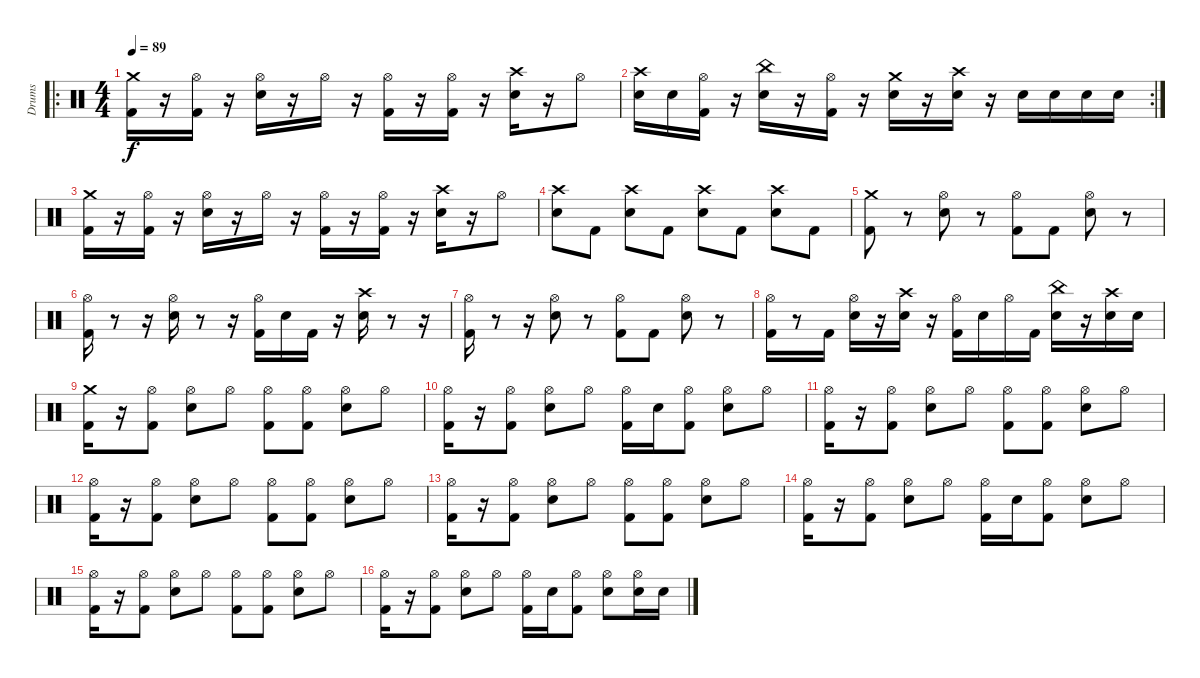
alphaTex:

\track ("Drums" "Drums") {instrument percussion}
\staff {score}
\articulation defaults
\ro
\ts (4 4)
\tempo 89
\clef neutral
\ks c
("Kick (hit) 2" "Crash medium (hit)").16{dy f} r.16 ("Hi-Hat (open)" "Kick (hit) 2").16 r.16 ("Hi-Hat (open)" "Snare (hit) 2").16 r.16 "Hi-Hat (open)".16 r.16 ("Hi-Hat (open)" "Kick (hit) 2").16 r.16 ("Hi-Hat (open)" "Kick (hit) 2").16 r.16 ("Crash high (hit)" "Snare (hit) 2").16 r.16 "Hi-Hat (open)".8 |
\rc 2
("Snare (hit) 2" "Crash high (hit)").16 "Snare (hit) 2".16 ("Hi-Hat (open)" "Kick (hit) 2").16 r.16 ("China (hit)" "Snare (hit) 2").16 r.16 ("Hi-Hat (open)" "Kick (hit) 2").16 r.16 ("Crash medium (hit)" "Snare (hit) 2").16 r.16 ("Crash high (hit)" "Snare (hit) 2").16 r.16 "Snare (hit) 2".16 "Snare (hit) 2".16 "Snare (hit) 2".16 "Snare (hit) 2".16 |
("Kick (hit) 2" "Crash medium (hit)").16 r.16 ("Hi-Hat (open)" "Kick (hit) 2").16 r.16 ("Hi-Hat (open)" "Snare (hit) 2").16 r.16 "Hi-Hat (open)".16 r.16 ("Hi-Hat (open)" "Kick (hit) 2").16 r.16 ("Hi-Hat (open)" "Kick (hit) 2").16 r.16 ("Crash high (hit)" "Snare (hit) 2").16 r.16 "Hi-Hat (open)".8 |
("Snare (hit) 2" "Crash high (hit)").8 "Kick (hit) 2".8 ("Crash high (hit)" "Snare (hit) 2").8 "Kick (hit) 2".8 ("Crash high (hit)" "Snare (hit) 2").8 "Kick (hit) 2".8 ("Crash high (hit)" "Snare (hit) 2").8 "Kick (hit) 2".8 |
("Kick (hit) 2" "Crash medium (hit)").8 r.8 ("Hi-Hat (open)" "Snare (hit) 2").8 r.8 ("Hi-Hat (open)" "Kick (hit) 2").8 "Kick (hit) 2".8 ("Hi-Hat (open)" "Snare (hit) 2").8 r.8 |
("Hi-Hat (open)" "Kick (hit) 2").16 r.8 r.16 ("Hi-Hat (open)" "Snare (hit) 2").16 r.8 r.16 ("Hi-Hat (open)" "Kick (hit) 2").16 "Snare (hit) 2".16 "Kick (hit) 2".16 r.16 ("Crash high (hit)" "Snare (hit) 2").16 r.8 r.16 |
("Hi-Hat (open)" "Kick (hit) 2").16 r.8 r.16 ("Hi-Hat (open)" "Snare (hit) 2").8 r.8 ("Hi-Hat (open)" "Kick (hit) 2").8 "Kick (hit) 2".8 ("Hi-Hat (open)" "Snare (hit) 2").8 r.8 |
("Hi-Hat (open)" "Kick (hit) 2").16 r.8 "Kick (hit) 2".16 ("Hi-Hat (open)" "Snare (hit) 2").16 r.16 ("Crash high (hit)" "Snare (hit) 2").16 r.16 ("Hi-Hat (open)" "Kick (hit) 2").16 "Snare (hit) 2".16 "Hi-Hat (open)".16 "Kick (hit) 2".16 ("China (hit)" "Snare (hit) 2").16 r.16 ("Crash high (hit)" "Snare (hit) 2").16 "Snare (hit) 2".16 |
("Kick (hit) 2" "Crash medium (hit)").16 r.16 ("Kick (hit) 2" "Hi-Hat (open)").8 ("Hi-Hat (open)" "Snare (hit) 2").8 "Hi-Hat (open)".8 ("Hi-Hat (open)" "Kick (hit) 2").8 ("Kick (hit) 2" "Hi-Hat (open)").8 ("Hi-Hat (open)" "Snare (hit) 2").8 "Hi-Hat (open)".8 |
("Kick (hit) 2" "Hi-Hat (open)").16 r.16 ("Kick (hit) 2" "Hi-Hat (open)").8 ("Snare (hit) 2" "Hi-Hat (open)").8 "Hi-Hat (open)".8 ("Kick (hit) 2" "Hi-Hat (open)").16 "Snare (hit) 2".16 ("Kick (hit) 2" "Hi-Hat (open)").8 ("Snare (hit) 2" "Hi-Hat (open)").8 "Hi-Hat (open)".8 |
("Kick (hit) 2" "Hi-Hat (open)").16 r.16 ("Kick (hit) 2" "Hi-Hat (open)").8 ("Snare (hit) 2" "Hi-Hat (open)").8 "Hi-Hat (open)".8 ("Kick (hit) 2" "Hi-Hat (open)").8 ("Kick (hit) 2" "Hi-Hat (open)").8 ("Snare (hit) 2" "Hi-Hat (open)").8 "Hi-Hat (open)".8 |
("Kick (hit) 2" "Hi-Hat (open)").16 r.16 ("Kick (hit) 2" "Hi-Hat (open)").8 ("Snare (hit) 2" "Hi-Hat (open)").8 "Hi-Hat (open)".8 ("Kick (hit) 2" "Hi-Hat (open)").8 ("Kick (hit) 2" "Hi-Hat (open)").8 ("Snare (hit) 2" "Hi-Hat (open)").8 "Hi-Hat (open)".8 |
("Kick (hit) 2" "Hi-Hat (open)").16 r.16 ("Kick (hit) 2" "Hi-Hat (open)").8 ("Snare (hit) 2" "Hi-Hat (open)").8 "Hi-Hat (open)".8 ("Kick (hit) 2" "Hi-Hat (open)").8 ("Kick (hit) 2" "Hi-Hat (open)").8 ("Snare (hit) 2" "Hi-Hat (open)").8 "Hi-Hat (open)".8 |
("Kick (hit) 2" "Hi-Hat (open)").16 r.16 ("Kick (hit) 2" "Hi-Hat (open)").8 ("Snare (hit) 2" "Hi-Hat (open)").8 "Hi-Hat (open)".8 ("Kick (hit) 2" "Hi-Hat (open)").16 "Snare (hit) 2".16 ("Kick (hit) 2" "Hi-Hat (open)").8 ("Snare (hit) 2" "Hi-Hat (open)").8 "Hi-Hat (open)".8 |
("Kick (hit) 2" "Hi-Hat (open)").16 r.16 ("Kick (hit) 2" "Hi-Hat (open)").8 ("Snare (hit) 2" "Hi-Hat (open)").8 "Hi-Hat (open)".8 ("Kick (hit) 2" "Hi-Hat (open)").8 ("Kick (hit) 2" "Hi-Hat (open)").8 ("Snare (hit) 2" "Hi-Hat (open)").8 "Hi-Hat (open)".8 |
("Kick (hit) 2" "Hi-Hat (open)").16 r.16 ("Kick (hit) 2" "Hi-Hat (open)").8 ("Snare (hit) 2" "Hi-Hat (open)").8 "Hi-Hat (open)".8 ("Kick (hit) 2" "Hi-Hat (open)").16 "Snare (hit) 2".16 ("Kick (hit) 2" "Hi-Hat (open)").8 ("Snare (hit) 2" "Hi-Hat (open)").8 ("Snare (hit) 2" "Hi-Hat (open)").16 "Snare (hit) 2".16
